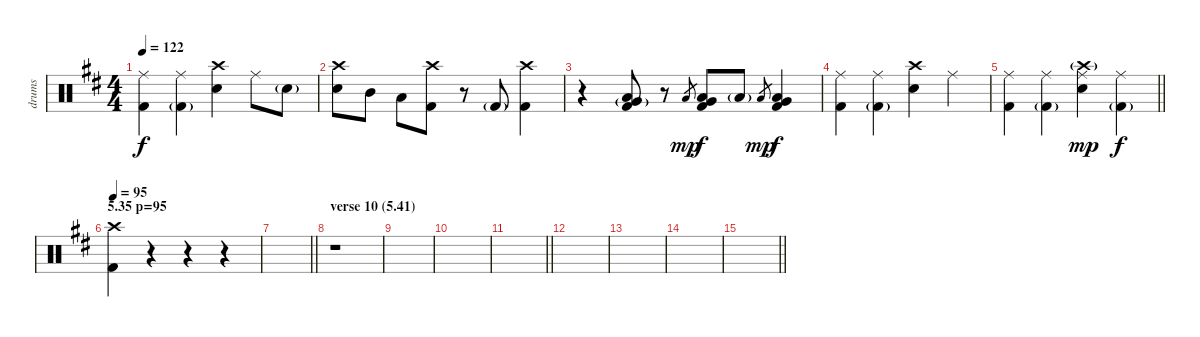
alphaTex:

\track ("drums" "drums") {instrument percussion}
\staff {score}
\articulation defaults
\ts (4 4)
\tempo 122
\clef neutral
\ks d
("Ride (middle)" "Kick (hit) 2").4{dy f} ("Ride (middle)" "Kick (hit) 2"{g}).4 ("Crash high (hit)" "Electric Snare (hit)").4 "Ride (middle)".8 "Electric Snare (hit)"{g}.8 |
("Crash high (hit)" "Electric Snare (hit)").8 "Mid Tom (hit)".8 "Low Tom (hit)".8 ("Crash high (hit)" "Kick (hit) 2").8 r.8 "Kick (hit) 2"{g}.8 ("Crash high (hit)" "Kick (hit) 2").4 |
r.4 ("Very Low Tom (hit)"{g} "Low Tom (hit)" "Kick (hit) 2").8 r.8 "Low Tom (hit)".8{gr dy mp} ("Very Low Tom (hit)" "Low Tom (hit)" "Kick (hit) 2").8{dy f} "Low Tom (hit)"{g}.8 "Low Tom (hit)".8{gr dy mp} ("Very Low Tom (hit)" "Low Tom (hit)" "Kick (hit) 2").4{dy f} |
("Ride (middle)" "Kick (hit) 2").4 ("Ride (middle)" "Kick (hit) 2"{g}).4 ("Crash high (hit)" "Electric Snare (hit)").4 "Ride (middle)".4 |
\barLineRight lightlight
("Ride (middle)" "Kick (hit) 2").4 ("Ride (middle)" "Kick (hit) 2"{g}).4 ("Ride (middle)" "Crash high (hit)"{g} "Electric Snare (hit)").4{dy mp} ("Ride (middle)" "Kick (hit) 2"{g}).4{dy f} |
\section ("" "5.35 p=95")
\tempo 95
("Crash high (hit)" "Kick (hit) 2").4 r.4 r.4 r.4 |
\barLineRight lightlight
|
\section ("" "verse 10 (5.41)")
r.1 |
|
|
\barLineRight lightlight
|
|
|
|
\barLineRight lightlight
